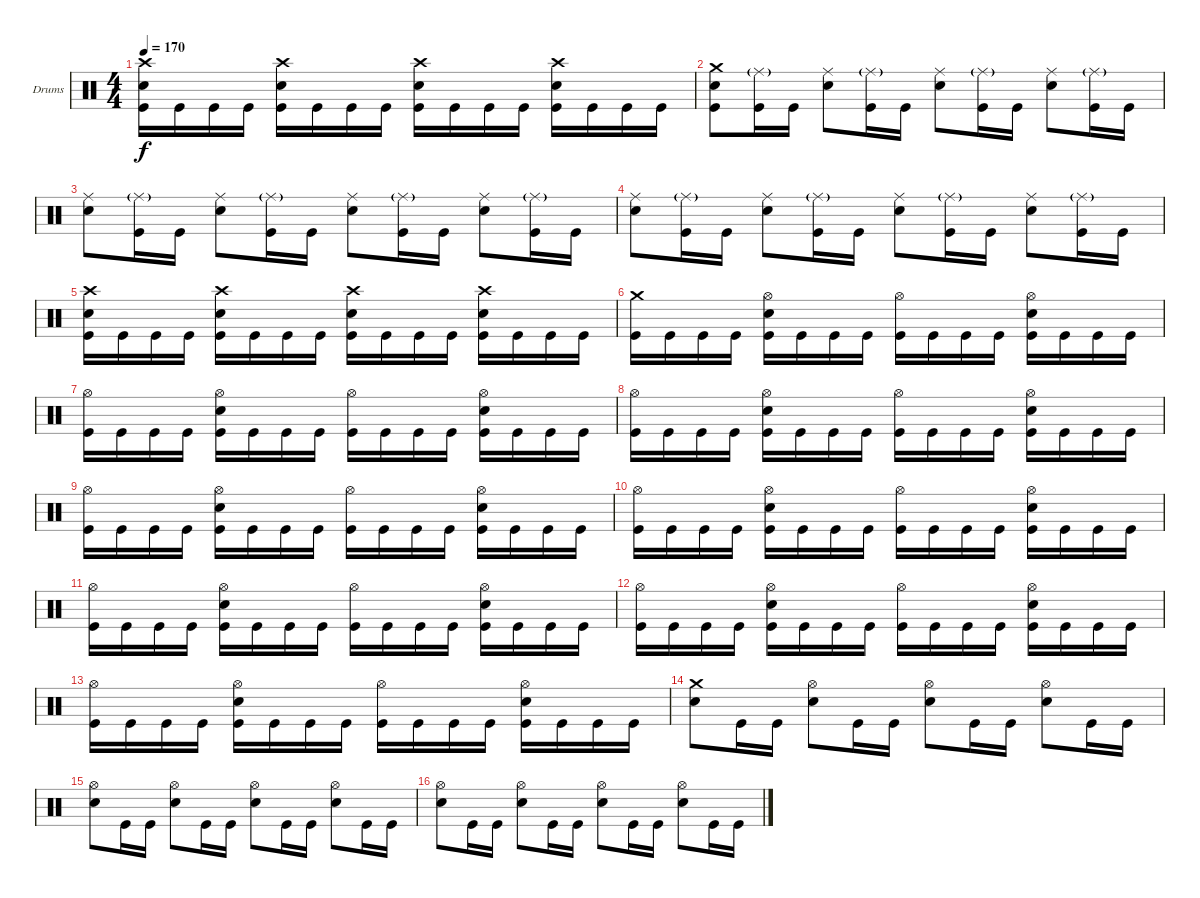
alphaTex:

\bracketExtendMode groupsimilarinstruments
\firstSystemTrackNameOrientation horizontal
\otherSystemsTrackNameOrientation horizontal
\track ("Дмитрий Кривенков" "Drums") {instrument percussion}
\staff {score}
\articulation defaults
\ts (4 4)
\tempo 170
\clef neutral
\ks c
("Crash high (hit)" "Snare (hit) 2" "Kick (hit)").16{dy f} "Kick (hit)".16 "Kick (hit)".16 "Kick (hit)".16 ("Crash high (hit)" "Snare (hit) 2" "Kick (hit)").16 "Kick (hit)".16 "Kick (hit)".16 "Kick (hit)".16 ("Crash high (hit)" "Snare (hit) 2" "Kick (hit)").16 "Kick (hit)".16 "Kick (hit)".16 "Kick (hit)".16 ("Crash high (hit)" "Snare (hit) 2" "Kick (hit)").16 "Kick (hit)".16 "Kick (hit)".16 "Kick (hit)".16 |
("Crash medium (hit)" "Snare (hit) 2" "Kick (hit)").8 ("Ride (middle)"{g} "Kick (hit)").16 "Kick (hit)".16 ("Ride (middle)" "Snare (hit) 2").8 ("Ride (middle)"{g} "Kick (hit)").16 "Kick (hit)".16 ("Ride (middle)" "Snare (hit) 2").8 ("Ride (middle)"{g} "Kick (hit)").16 "Kick (hit)".16 ("Ride (middle)" "Snare (hit) 2").8 ("Ride (middle)"{g} "Kick (hit)").16 "Kick (hit)".16 |
("Ride (middle)" "Snare (hit) 2").8 ("Ride (middle)"{g} "Kick (hit)").16 "Kick (hit)".16 ("Ride (middle)" "Snare (hit) 2").8 ("Ride (middle)"{g} "Kick (hit)").16 "Kick (hit)".16 ("Ride (middle)" "Snare (hit) 2").8 ("Ride (middle)"{g} "Kick (hit)").16 "Kick (hit)".16 ("Ride (middle)" "Snare (hit) 2").8 ("Ride (middle)"{g} "Kick (hit)").16 "Kick (hit)".16 |
("Ride (middle)" "Snare (hit) 2").8 ("Ride (middle)"{g} "Kick (hit)").16 "Kick (hit)".16 ("Ride (middle)" "Snare (hit) 2").8 ("Ride (middle)"{g} "Kick (hit)").16 "Kick (hit)".16 ("Ride (middle)" "Snare (hit) 2").8 ("Ride (middle)"{g} "Kick (hit)").16 "Kick (hit)".16 ("Ride (middle)" "Snare (hit) 2").8 ("Ride (middle)"{g} "Kick (hit)").16 "Kick (hit)".16 |
("Crash high (hit)" "Snare (hit) 2" "Kick (hit)").16 "Kick (hit)".16 "Kick (hit)".16 "Kick (hit)".16 ("Crash high (hit)" "Snare (hit) 2" "Kick (hit)").16 "Kick (hit)".16 "Kick (hit)".16 "Kick (hit)".16 ("Crash high (hit)" "Snare (hit) 2" "Kick (hit)").16 "Kick (hit)".16 "Kick (hit)".16 "Kick (hit)".16 ("Crash high (hit)" "Snare (hit) 2" "Kick (hit)").16 "Kick (hit)".16 "Kick (hit)".16 "Kick (hit)".16 |
("Crash medium (hit)" "Kick (hit)").16 "Kick (hit)".16 "Kick (hit)".16 "Kick (hit)".16 ("Hi-Hat (open)" "Snare (hit) 2" "Kick (hit)").16 "Kick (hit)".16 "Kick (hit)".16 "Kick (hit)".16 ("Hi-Hat (open)" "Kick (hit)").16 "Kick (hit)".16 "Kick (hit)".16 "Kick (hit)".16 ("Hi-Hat (open)" "Snare (hit) 2" "Kick (hit)").16 "Kick (hit)".16 "Kick (hit)".16 "Kick (hit)".16 |
("Hi-Hat (open)" "Kick (hit)").16 "Kick (hit)".16 "Kick (hit)".16 "Kick (hit)".16 ("Hi-Hat (open)" "Snare (hit) 2" "Kick (hit)").16 "Kick (hit)".16 "Kick (hit)".16 "Kick (hit)".16 ("Hi-Hat (open)" "Kick (hit)").16 "Kick (hit)".16 "Kick (hit)".16 "Kick (hit)".16 ("Hi-Hat (open)" "Snare (hit) 2" "Kick (hit)").16 "Kick (hit)".16 "Kick (hit)".16 "Kick (hit)".16 |
("Hi-Hat (open)" "Kick (hit)").16 "Kick (hit)".16 "Kick (hit)".16 "Kick (hit)".16 ("Hi-Hat (open)" "Snare (hit) 2" "Kick (hit)").16 "Kick (hit)".16 "Kick (hit)".16 "Kick (hit)".16 ("Hi-Hat (open)" "Kick (hit)").16 "Kick (hit)".16 "Kick (hit)".16 "Kick (hit)".16 ("Hi-Hat (open)" "Snare (hit) 2" "Kick (hit)").16 "Kick (hit)".16 "Kick (hit)".16 "Kick (hit)".16 |
("Hi-Hat (open)" "Kick (hit)").16 "Kick (hit)".16 "Kick (hit)".16 "Kick (hit)".16 ("Hi-Hat (open)" "Snare (hit) 2" "Kick (hit)").16 "Kick (hit)".16 "Kick (hit)".16 "Kick (hit)".16 ("Hi-Hat (open)" "Kick (hit)").16 "Kick (hit)".16 "Kick (hit)".16 "Kick (hit)".16 ("Hi-Hat (open)" "Snare (hit) 2" "Kick (hit)").16 "Kick (hit)".16 "Kick (hit)".16 "Kick (hit)".16 |
("Hi-Hat (open)" "Kick (hit)").16 "Kick (hit)".16 "Kick (hit)".16 "Kick (hit)".16 ("Hi-Hat (open)" "Snare (hit) 2" "Kick (hit)").16 "Kick (hit)".16 "Kick (hit)".16 "Kick (hit)".16 ("Hi-Hat (open)" "Kick (hit)").16 "Kick (hit)".16 "Kick (hit)".16 "Kick (hit)".16 ("Hi-Hat (open)" "Snare (hit) 2" "Kick (hit)").16 "Kick (hit)".16 "Kick (hit)".16 "Kick (hit)".16 |
("Hi-Hat (open)" "Kick (hit)").16 "Kick (hit)".16 "Kick (hit)".16 "Kick (hit)".16 ("Hi-Hat (open)" "Snare (hit) 2" "Kick (hit)").16 "Kick (hit)".16 "Kick (hit)".16 "Kick (hit)".16 ("Hi-Hat (open)" "Kick (hit)").16 "Kick (hit)".16 "Kick (hit)".16 "Kick (hit)".16 ("Hi-Hat (open)" "Snare (hit) 2" "Kick (hit)").16 "Kick (hit)".16 "Kick (hit)".16 "Kick (hit)".16 |
("Hi-Hat (open)" "Kick (hit)").16 "Kick (hit)".16 "Kick (hit)".16 "Kick (hit)".16 ("Hi-Hat (open)" "Snare (hit) 2" "Kick (hit)").16 "Kick (hit)".16 "Kick (hit)".16 "Kick (hit)".16 ("Hi-Hat (open)" "Kick (hit)").16 "Kick (hit)".16 "Kick (hit)".16 "Kick (hit)".16 ("Hi-Hat (open)" "Snare (hit) 2" "Kick (hit)").16 "Kick (hit)".16 "Kick (hit)".16 "Kick (hit)".16 |
("Hi-Hat (open)" "Kick (hit)").16 "Kick (hit)".16 "Kick (hit)".16 "Kick (hit)".16 ("Hi-Hat (open)" "Snare (hit) 2" "Kick (hit)").16 "Kick (hit)".16 "Kick (hit)".16 "Kick (hit)".16 ("Hi-Hat (open)" "Kick (hit)").16 "Kick (hit)".16 "Kick (hit)".16 "Kick (hit)".16 ("Hi-Hat (open)" "Snare (hit) 2" "Kick (hit)").16 "Kick (hit)".16 "Kick (hit)".16 "Kick (hit)".16 |
("Crash medium (hit)" "Snare (hit) 2").8 "Kick (hit)".16 "Kick (hit)".16 ("Hi-Hat (open)" "Snare (hit) 2").8 "Kick (hit)".16 "Kick (hit)".16 ("Hi-Hat (open)" "Snare (hit) 2").8 "Kick (hit)".16 "Kick (hit)".16 ("Hi-Hat (open)" "Snare (hit) 2").8 "Kick (hit)".16 "Kick (hit)".16 |
("Hi-Hat (open)" "Snare (hit) 2").8 "Kick (hit)".16 "Kick (hit)".16 ("Hi-Hat (open)" "Snare (hit) 2").8 "Kick (hit)".16 "Kick (hit)".16 ("Hi-Hat (open)" "Snare (hit) 2").8 "Kick (hit)".16 "Kick (hit)".16 ("Hi-Hat (open)" "Snare (hit) 2").8 "Kick (hit)".16 "Kick (hit)".16 |
("Hi-Hat (open)" "Snare (hit) 2").8 "Kick (hit)".16 "Kick (hit)".16 ("Hi-Hat (open)" "Snare (hit) 2").8 "Kick (hit)".16 "Kick (hit)".16 ("Hi-Hat (open)" "Snare (hit) 2").8 "Kick (hit)".16 "Kick (hit)".16 ("Hi-Hat (open)" "Snare (hit) 2").8 "Kick (hit)".16 "Kick (hit)".16
